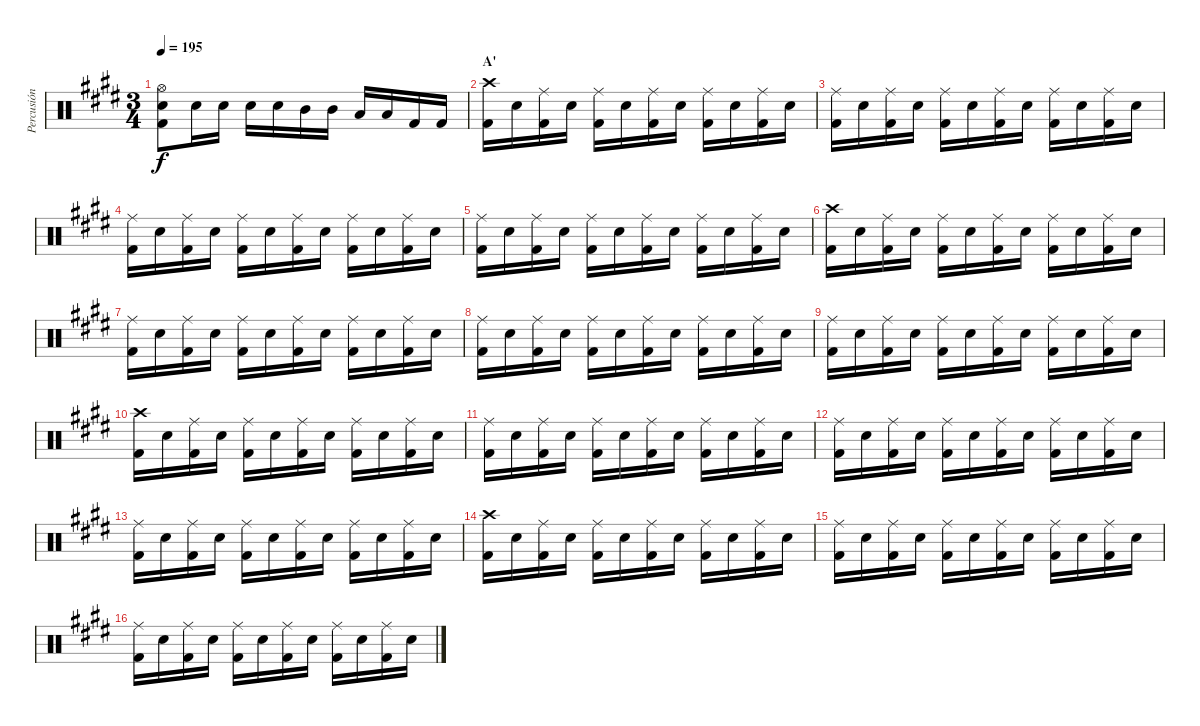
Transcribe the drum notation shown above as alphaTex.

\track ("Percusión" "Percusión") {instrument percussion}
\staff {score}
\articulation defaults
\ts (3 4)
\tempo 195
\clef neutral
\ks e
("Hi-Hat (open)" "Electric Snare (hit)" "Kick (hit) 2").8{dy f} "Electric Snare (hit)".16 "Electric Snare (hit)".16 "Electric Snare (hit)".16 "Electric Snare (hit)".16 "Mid Tom (hit)".16 "Mid Tom (hit)".16 "Low Tom (hit)".16 "Low Tom (hit)".16 "Kick (hit) 2".16 "Kick (hit) 2".16 |
\section ("" "A'")
("Crash high (hit)" "Kick (hit) 2").16 "Electric Snare (hit)".16 ("Ride (middle)" "Kick (hit) 2").16 "Electric Snare (hit)".16 ("Ride (middle)" "Kick (hit) 2").16 "Electric Snare (hit)".16 ("Ride (middle)" "Kick (hit) 2").16 "Electric Snare (hit)".16 ("Ride (middle)" "Kick (hit) 2").16 "Electric Snare (hit)".16 ("Ride (middle)" "Kick (hit) 2").16 "Electric Snare (hit)".16 |
("Ride (middle)" "Kick (hit) 2").16 "Electric Snare (hit)".16 ("Ride (middle)" "Kick (hit) 2").16 "Electric Snare (hit)".16 ("Ride (middle)" "Kick (hit) 2").16 "Electric Snare (hit)".16 ("Ride (middle)" "Kick (hit) 2").16 "Electric Snare (hit)".16 ("Ride (middle)" "Kick (hit) 2").16 "Electric Snare (hit)".16 ("Ride (middle)" "Kick (hit) 2").16 "Electric Snare (hit)".16 |
("Ride (middle)" "Kick (hit) 2").16 "Electric Snare (hit)".16 ("Ride (middle)" "Kick (hit) 2").16 "Electric Snare (hit)".16 ("Ride (middle)" "Kick (hit) 2").16 "Electric Snare (hit)".16 ("Ride (middle)" "Kick (hit) 2").16 "Electric Snare (hit)".16 ("Ride (middle)" "Kick (hit) 2").16 "Electric Snare (hit)".16 ("Ride (middle)" "Kick (hit) 2").16 "Electric Snare (hit)".16 |
("Ride (middle)" "Kick (hit) 2").16 "Electric Snare (hit)".16 ("Ride (middle)" "Kick (hit) 2").16 "Electric Snare (hit)".16 ("Ride (middle)" "Kick (hit) 2").16 "Electric Snare (hit)".16 ("Ride (middle)" "Kick (hit) 2").16 "Electric Snare (hit)".16 ("Ride (middle)" "Kick (hit) 2").16 "Electric Snare (hit)".16 ("Ride (middle)" "Kick (hit) 2").16 "Electric Snare (hit)".16 |
("Crash high (hit)" "Kick (hit) 2").16 "Electric Snare (hit)".16 ("Ride (middle)" "Kick (hit) 2").16 "Electric Snare (hit)".16 ("Ride (middle)" "Kick (hit) 2").16 "Electric Snare (hit)".16 ("Ride (middle)" "Kick (hit) 2").16 "Electric Snare (hit)".16 ("Ride (middle)" "Kick (hit) 2").16 "Electric Snare (hit)".16 ("Ride (middle)" "Kick (hit) 2").16 "Electric Snare (hit)".16 |
("Ride (middle)" "Kick (hit) 2").16 "Electric Snare (hit)".16 ("Ride (middle)" "Kick (hit) 2").16 "Electric Snare (hit)".16 ("Ride (middle)" "Kick (hit) 2").16 "Electric Snare (hit)".16 ("Ride (middle)" "Kick (hit) 2").16 "Electric Snare (hit)".16 ("Ride (middle)" "Kick (hit) 2").16 "Electric Snare (hit)".16 ("Ride (middle)" "Kick (hit) 2").16 "Electric Snare (hit)".16 |
("Ride (middle)" "Kick (hit) 2").16 "Electric Snare (hit)".16 ("Ride (middle)" "Kick (hit) 2").16 "Electric Snare (hit)".16 ("Ride (middle)" "Kick (hit) 2").16 "Electric Snare (hit)".16 ("Ride (middle)" "Kick (hit) 2").16 "Electric Snare (hit)".16 ("Ride (middle)" "Kick (hit) 2").16 "Electric Snare (hit)".16 ("Ride (middle)" "Kick (hit) 2").16 "Electric Snare (hit)".16 |
("Ride (middle)" "Kick (hit) 2").16 "Electric Snare (hit)".16 ("Ride (middle)" "Kick (hit) 2").16 "Electric Snare (hit)".16 ("Ride (middle)" "Kick (hit) 2").16 "Electric Snare (hit)".16 ("Ride (middle)" "Kick (hit) 2").16 "Electric Snare (hit)".16 ("Ride (middle)" "Kick (hit) 2").16 "Electric Snare (hit)".16 ("Ride (middle)" "Kick (hit) 2").16 "Electric Snare (hit)".16 |
("Crash high (hit)" "Kick (hit) 2").16 "Electric Snare (hit)".16 ("Ride (middle)" "Kick (hit) 2").16 "Electric Snare (hit)".16 ("Ride (middle)" "Kick (hit) 2").16 "Electric Snare (hit)".16 ("Ride (middle)" "Kick (hit) 2").16 "Electric Snare (hit)".16 ("Ride (middle)" "Kick (hit) 2").16 "Electric Snare (hit)".16 ("Ride (middle)" "Kick (hit) 2").16 "Electric Snare (hit)".16 |
("Ride (middle)" "Kick (hit) 2").16 "Electric Snare (hit)".16 ("Ride (middle)" "Kick (hit) 2").16 "Electric Snare (hit)".16 ("Ride (middle)" "Kick (hit) 2").16 "Electric Snare (hit)".16 ("Ride (middle)" "Kick (hit) 2").16 "Electric Snare (hit)".16 ("Ride (middle)" "Kick (hit) 2").16 "Electric Snare (hit)".16 ("Ride (middle)" "Kick (hit) 2").16 "Electric Snare (hit)".16 |
("Ride (middle)" "Kick (hit) 2").16 "Electric Snare (hit)".16 ("Ride (middle)" "Kick (hit) 2").16 "Electric Snare (hit)".16 ("Ride (middle)" "Kick (hit) 2").16 "Electric Snare (hit)".16 ("Ride (middle)" "Kick (hit) 2").16 "Electric Snare (hit)".16 ("Ride (middle)" "Kick (hit) 2").16 "Electric Snare (hit)".16 ("Ride (middle)" "Kick (hit) 2").16 "Electric Snare (hit)".16 |
("Ride (middle)" "Kick (hit) 2").16 "Electric Snare (hit)".16 ("Ride (middle)" "Kick (hit) 2").16 "Electric Snare (hit)".16 ("Ride (middle)" "Kick (hit) 2").16 "Electric Snare (hit)".16 ("Ride (middle)" "Kick (hit) 2").16 "Electric Snare (hit)".16 ("Ride (middle)" "Kick (hit) 2").16 "Electric Snare (hit)".16 ("Ride (middle)" "Kick (hit) 2").16 "Electric Snare (hit)".16 |
("Crash high (hit)" "Kick (hit) 2").16 "Electric Snare (hit)".16 ("Ride (middle)" "Kick (hit) 2").16 "Electric Snare (hit)".16 ("Ride (middle)" "Kick (hit) 2").16 "Electric Snare (hit)".16 ("Ride (middle)" "Kick (hit) 2").16 "Electric Snare (hit)".16 ("Ride (middle)" "Kick (hit) 2").16 "Electric Snare (hit)".16 ("Ride (middle)" "Kick (hit) 2").16 "Electric Snare (hit)".16 |
("Ride (middle)" "Kick (hit) 2").16 "Electric Snare (hit)".16 ("Ride (middle)" "Kick (hit) 2").16 "Electric Snare (hit)".16 ("Ride (middle)" "Kick (hit) 2").16 "Electric Snare (hit)".16 ("Ride (middle)" "Kick (hit) 2").16 "Electric Snare (hit)".16 ("Ride (middle)" "Kick (hit) 2").16 "Electric Snare (hit)".16 ("Ride (middle)" "Kick (hit) 2").16 "Electric Snare (hit)".16 |
("Ride (middle)" "Kick (hit) 2").16 "Electric Snare (hit)".16 ("Ride (middle)" "Kick (hit) 2").16 "Electric Snare (hit)".16 ("Ride (middle)" "Kick (hit) 2").16 "Electric Snare (hit)".16 ("Ride (middle)" "Kick (hit) 2").16 "Electric Snare (hit)".16 ("Ride (middle)" "Kick (hit) 2").16 "Electric Snare (hit)".16 ("Ride (middle)" "Kick (hit) 2").16 "Electric Snare (hit)".16
